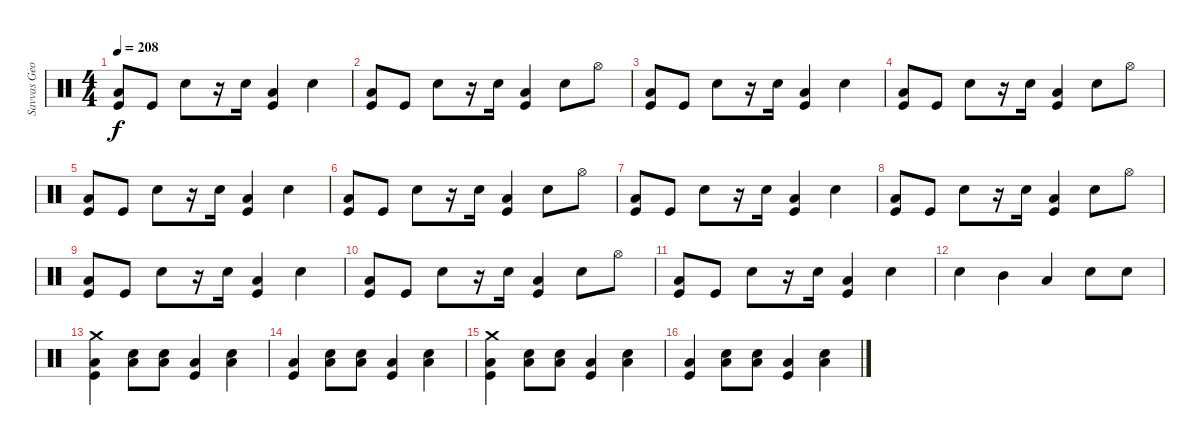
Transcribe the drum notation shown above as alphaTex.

\track ("Savvas Georgiadis" "Savvas Geo") {instrument percussion}
\staff {score}
\articulation defaults
\ts (4 4)
\tempo 208
\clef neutral
\ks c
("Low Tom (hit)" "Kick (hit)").8{dy f} "Kick (hit)".8 "Electric Snare (hit)".8 r.16 "Electric Snare (hit)".16 ("Low Tom (hit)" "Kick (hit)").4 "Electric Snare (hit)".4 |
("Low Tom (hit)" "Kick (hit)").8 "Kick (hit)".8 "Electric Snare (hit)".8 r.16 "Electric Snare (hit)".16 ("Low Tom (hit)" "Kick (hit)").4 "Electric Snare (hit)".8 "Hi-Hat (open)".8 |
("Low Tom (hit)" "Kick (hit)").8 "Kick (hit)".8 "Electric Snare (hit)".8 r.16 "Electric Snare (hit)".16 ("Low Tom (hit)" "Kick (hit)").4 "Electric Snare (hit)".4 |
("Low Tom (hit)" "Kick (hit)").8 "Kick (hit)".8 "Electric Snare (hit)".8 r.16 "Electric Snare (hit)".16 ("Low Tom (hit)" "Kick (hit)").4 "Electric Snare (hit)".8 "Hi-Hat (open)".8 |
("Low Tom (hit)" "Kick (hit)").8 "Kick (hit)".8 "Electric Snare (hit)".8 r.16 "Electric Snare (hit)".16 ("Low Tom (hit)" "Kick (hit)").4 "Electric Snare (hit)".4 |
("Low Tom (hit)" "Kick (hit)").8 "Kick (hit)".8 "Electric Snare (hit)".8 r.16 "Electric Snare (hit)".16 ("Low Tom (hit)" "Kick (hit)").4 "Electric Snare (hit)".8 "Hi-Hat (open)".8 |
("Low Tom (hit)" "Kick (hit)").8 "Kick (hit)".8 "Electric Snare (hit)".8 r.16 "Electric Snare (hit)".16 ("Low Tom (hit)" "Kick (hit)").4 "Electric Snare (hit)".4 |
("Low Tom (hit)" "Kick (hit)").8 "Kick (hit)".8 "Electric Snare (hit)".8 r.16 "Electric Snare (hit)".16 ("Low Tom (hit)" "Kick (hit)").4 "Electric Snare (hit)".8 "Hi-Hat (open)".8 |
("Low Tom (hit)" "Kick (hit)").8 "Kick (hit)".8 "Electric Snare (hit)".8 r.16 "Electric Snare (hit)".16 ("Low Tom (hit)" "Kick (hit)").4 "Electric Snare (hit)".4 |
("Low Tom (hit)" "Kick (hit)").8 "Kick (hit)".8 "Electric Snare (hit)".8 r.16 "Electric Snare (hit)".16 ("Low Tom (hit)" "Kick (hit)").4 "Electric Snare (hit)".8 "Hi-Hat (open)".8 |
("Low Tom (hit)" "Kick (hit)").8 "Kick (hit)".8 "Electric Snare (hit)".8 r.16 "Electric Snare (hit)".16 ("Low Tom (hit)" "Kick (hit)").4 "Electric Snare (hit)".4 |
"Electric Snare (hit)".4 "Mid Tom (hit)".4 "Low Tom (hit)".4 "Electric Snare (hit)".8 "Electric Snare (hit)".8 |
("Crash medium (hit)" "Low Tom (hit)" "Kick (hit)").4 ("Electric Snare (hit)" "Low Tom (hit)").8 ("Electric Snare (hit)" "Low Tom (hit)").8 ("Low Tom (hit)" "Kick (hit)").4 ("Electric Snare (hit)" "Low Tom (hit)").4 |
("Low Tom (hit)" "Kick (hit)").4 ("Electric Snare (hit)" "Low Tom (hit)").8 ("Electric Snare (hit)" "Low Tom (hit)").8 ("Low Tom (hit)" "Kick (hit)").4 ("Electric Snare (hit)" "Low Tom (hit)").4 |
("Crash medium (hit)" "Low Tom (hit)" "Kick (hit)").4 ("Electric Snare (hit)" "Low Tom (hit)").8 ("Electric Snare (hit)" "Low Tom (hit)").8 ("Low Tom (hit)" "Kick (hit)").4 ("Electric Snare (hit)" "Low Tom (hit)").4 |
("Low Tom (hit)" "Kick (hit)").4 ("Electric Snare (hit)" "Low Tom (hit)").8 ("Electric Snare (hit)" "Low Tom (hit)").8 ("Low Tom (hit)" "Kick (hit)").4 ("Electric Snare (hit)" "Low Tom (hit)").4
